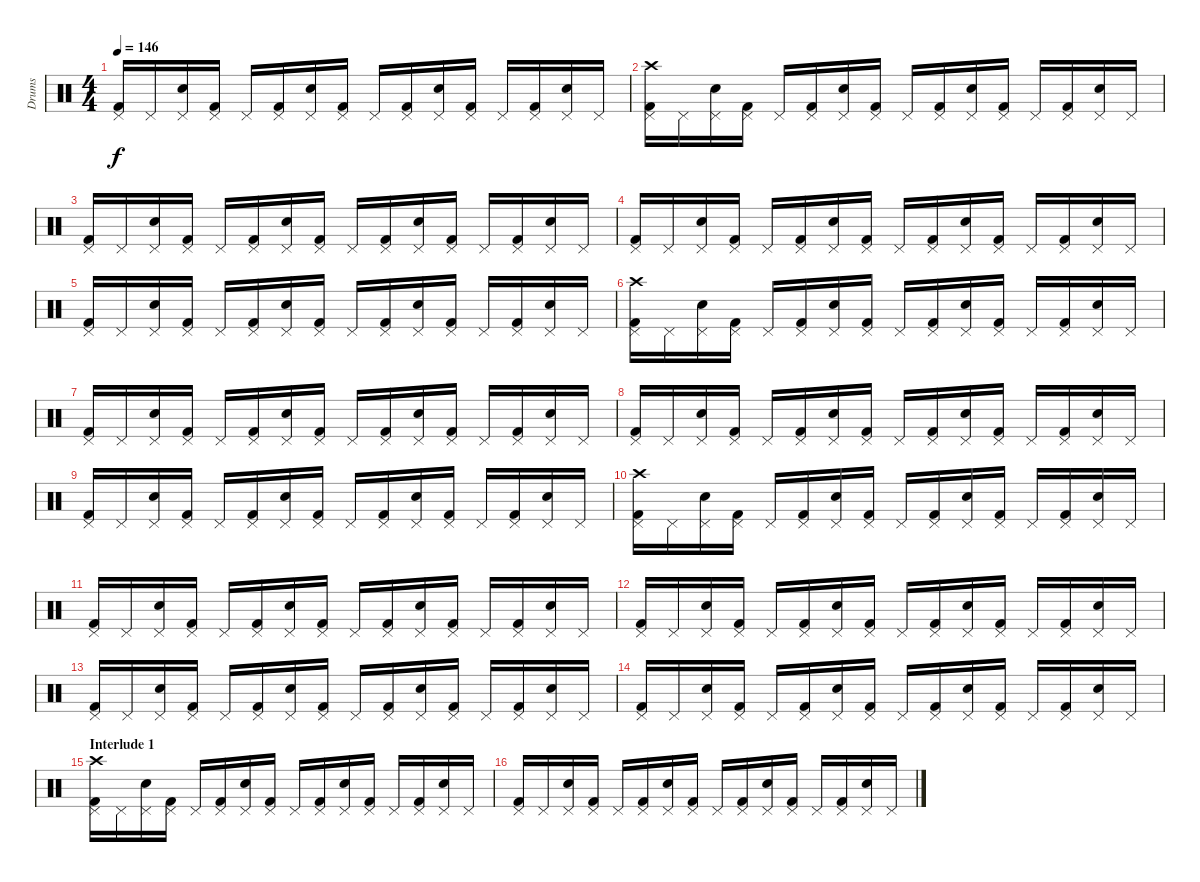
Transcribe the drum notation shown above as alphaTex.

\track ("Drums" "Drums") {instrument percussion}
\staff {score}
\articulation defaults
\ts (4 4)
\tempo 146
\clef neutral
\ks c
("Kick (hit) 2" "Pedal Hi-Hat (hit)").16{dy f} "Pedal Hi-Hat (hit)".16 ("Snare (hit) 2" "Pedal Hi-Hat (hit)").16 ("Kick (hit) 2" "Pedal Hi-Hat (hit)").16 "Pedal Hi-Hat (hit)".16 ("Kick (hit) 2" "Pedal Hi-Hat (hit)").16 ("Snare (hit) 2" "Pedal Hi-Hat (hit)").16 ("Kick (hit) 2" "Pedal Hi-Hat (hit)").16 "Pedal Hi-Hat (hit)".16 ("Kick (hit) 2" "Pedal Hi-Hat (hit)").16 ("Snare (hit) 2" "Pedal Hi-Hat (hit)").16 ("Kick (hit) 2" "Pedal Hi-Hat (hit)").16 "Pedal Hi-Hat (hit)".16 ("Kick (hit) 2" "Pedal Hi-Hat (hit)").16 ("Snare (hit) 2" "Pedal Hi-Hat (hit)").16 "Pedal Hi-Hat (hit)".16 |
("Kick (hit) 2" "Pedal Hi-Hat (hit)" "Crash high (hit)").16 "Pedal Hi-Hat (hit)".16 ("Snare (hit) 2" "Pedal Hi-Hat (hit)").16 ("Kick (hit) 2" "Pedal Hi-Hat (hit)").16 "Pedal Hi-Hat (hit)".16 ("Kick (hit) 2" "Pedal Hi-Hat (hit)").16 ("Snare (hit) 2" "Pedal Hi-Hat (hit)").16 ("Kick (hit) 2" "Pedal Hi-Hat (hit)").16 "Pedal Hi-Hat (hit)".16 ("Kick (hit) 2" "Pedal Hi-Hat (hit)").16 ("Snare (hit) 2" "Pedal Hi-Hat (hit)").16 ("Kick (hit) 2" "Pedal Hi-Hat (hit)").16 "Pedal Hi-Hat (hit)".16 ("Kick (hit) 2" "Pedal Hi-Hat (hit)").16 ("Snare (hit) 2" "Pedal Hi-Hat (hit)").16 "Pedal Hi-Hat (hit)".16 |
("Kick (hit) 2" "Pedal Hi-Hat (hit)").16 "Pedal Hi-Hat (hit)".16 ("Snare (hit) 2" "Pedal Hi-Hat (hit)").16 ("Kick (hit) 2" "Pedal Hi-Hat (hit)").16 "Pedal Hi-Hat (hit)".16 ("Kick (hit) 2" "Pedal Hi-Hat (hit)").16 ("Snare (hit) 2" "Pedal Hi-Hat (hit)").16 ("Kick (hit) 2" "Pedal Hi-Hat (hit)").16 "Pedal Hi-Hat (hit)".16 ("Kick (hit) 2" "Pedal Hi-Hat (hit)").16 ("Snare (hit) 2" "Pedal Hi-Hat (hit)").16 ("Kick (hit) 2" "Pedal Hi-Hat (hit)").16 "Pedal Hi-Hat (hit)".16 ("Kick (hit) 2" "Pedal Hi-Hat (hit)").16 ("Snare (hit) 2" "Pedal Hi-Hat (hit)").16 "Pedal Hi-Hat (hit)".16 |
("Kick (hit) 2" "Pedal Hi-Hat (hit)").16 "Pedal Hi-Hat (hit)".16 ("Snare (hit) 2" "Pedal Hi-Hat (hit)").16 ("Kick (hit) 2" "Pedal Hi-Hat (hit)").16 "Pedal Hi-Hat (hit)".16 ("Kick (hit) 2" "Pedal Hi-Hat (hit)").16 ("Snare (hit) 2" "Pedal Hi-Hat (hit)").16 ("Kick (hit) 2" "Pedal Hi-Hat (hit)").16 "Pedal Hi-Hat (hit)".16 ("Kick (hit) 2" "Pedal Hi-Hat (hit)").16 ("Snare (hit) 2" "Pedal Hi-Hat (hit)").16 ("Kick (hit) 2" "Pedal Hi-Hat (hit)").16 "Pedal Hi-Hat (hit)".16 ("Kick (hit) 2" "Pedal Hi-Hat (hit)").16 ("Snare (hit) 2" "Pedal Hi-Hat (hit)").16 "Pedal Hi-Hat (hit)".16 |
("Kick (hit) 2" "Pedal Hi-Hat (hit)").16 "Pedal Hi-Hat (hit)".16 ("Snare (hit) 2" "Pedal Hi-Hat (hit)").16 ("Kick (hit) 2" "Pedal Hi-Hat (hit)").16 "Pedal Hi-Hat (hit)".16 ("Kick (hit) 2" "Pedal Hi-Hat (hit)").16 ("Snare (hit) 2" "Pedal Hi-Hat (hit)").16 ("Kick (hit) 2" "Pedal Hi-Hat (hit)").16 "Pedal Hi-Hat (hit)".16 ("Kick (hit) 2" "Pedal Hi-Hat (hit)").16 ("Snare (hit) 2" "Pedal Hi-Hat (hit)").16 ("Kick (hit) 2" "Pedal Hi-Hat (hit)").16 "Pedal Hi-Hat (hit)".16 ("Kick (hit) 2" "Pedal Hi-Hat (hit)").16 ("Snare (hit) 2" "Pedal Hi-Hat (hit)").16 "Pedal Hi-Hat (hit)".16 |
("Kick (hit) 2" "Pedal Hi-Hat (hit)" "Crash high (hit)").16 "Pedal Hi-Hat (hit)".16 ("Snare (hit) 2" "Pedal Hi-Hat (hit)").16 ("Kick (hit) 2" "Pedal Hi-Hat (hit)").16 "Pedal Hi-Hat (hit)".16 ("Kick (hit) 2" "Pedal Hi-Hat (hit)").16 ("Snare (hit) 2" "Pedal Hi-Hat (hit)").16 ("Kick (hit) 2" "Pedal Hi-Hat (hit)").16 "Pedal Hi-Hat (hit)".16 ("Kick (hit) 2" "Pedal Hi-Hat (hit)").16 ("Snare (hit) 2" "Pedal Hi-Hat (hit)").16 ("Kick (hit) 2" "Pedal Hi-Hat (hit)").16 "Pedal Hi-Hat (hit)".16 ("Kick (hit) 2" "Pedal Hi-Hat (hit)").16 ("Snare (hit) 2" "Pedal Hi-Hat (hit)").16 "Pedal Hi-Hat (hit)".16 |
("Kick (hit) 2" "Pedal Hi-Hat (hit)").16 "Pedal Hi-Hat (hit)".16 ("Snare (hit) 2" "Pedal Hi-Hat (hit)").16 ("Kick (hit) 2" "Pedal Hi-Hat (hit)").16 "Pedal Hi-Hat (hit)".16 ("Kick (hit) 2" "Pedal Hi-Hat (hit)").16 ("Snare (hit) 2" "Pedal Hi-Hat (hit)").16 ("Kick (hit) 2" "Pedal Hi-Hat (hit)").16 "Pedal Hi-Hat (hit)".16 ("Kick (hit) 2" "Pedal Hi-Hat (hit)").16 ("Snare (hit) 2" "Pedal Hi-Hat (hit)").16 ("Kick (hit) 2" "Pedal Hi-Hat (hit)").16 "Pedal Hi-Hat (hit)".16 ("Kick (hit) 2" "Pedal Hi-Hat (hit)").16 ("Snare (hit) 2" "Pedal Hi-Hat (hit)").16 "Pedal Hi-Hat (hit)".16 |
("Kick (hit) 2" "Pedal Hi-Hat (hit)").16 "Pedal Hi-Hat (hit)".16 ("Snare (hit) 2" "Pedal Hi-Hat (hit)").16 ("Kick (hit) 2" "Pedal Hi-Hat (hit)").16 "Pedal Hi-Hat (hit)".16 ("Kick (hit) 2" "Pedal Hi-Hat (hit)").16 ("Snare (hit) 2" "Pedal Hi-Hat (hit)").16 ("Kick (hit) 2" "Pedal Hi-Hat (hit)").16 "Pedal Hi-Hat (hit)".16 ("Kick (hit) 2" "Pedal Hi-Hat (hit)").16 ("Snare (hit) 2" "Pedal Hi-Hat (hit)").16 ("Kick (hit) 2" "Pedal Hi-Hat (hit)").16 "Pedal Hi-Hat (hit)".16 ("Kick (hit) 2" "Pedal Hi-Hat (hit)").16 ("Snare (hit) 2" "Pedal Hi-Hat (hit)").16 "Pedal Hi-Hat (hit)".16 |
("Kick (hit) 2" "Pedal Hi-Hat (hit)").16 "Pedal Hi-Hat (hit)".16 ("Snare (hit) 2" "Pedal Hi-Hat (hit)").16 ("Kick (hit) 2" "Pedal Hi-Hat (hit)").16 "Pedal Hi-Hat (hit)".16 ("Kick (hit) 2" "Pedal Hi-Hat (hit)").16 ("Snare (hit) 2" "Pedal Hi-Hat (hit)").16 ("Kick (hit) 2" "Pedal Hi-Hat (hit)").16 "Pedal Hi-Hat (hit)".16 ("Kick (hit) 2" "Pedal Hi-Hat (hit)").16 ("Snare (hit) 2" "Pedal Hi-Hat (hit)").16 ("Kick (hit) 2" "Pedal Hi-Hat (hit)").16 "Pedal Hi-Hat (hit)".16 ("Kick (hit) 2" "Pedal Hi-Hat (hit)").16 ("Snare (hit) 2" "Pedal Hi-Hat (hit)").16 "Pedal Hi-Hat (hit)".16 |
("Kick (hit) 2" "Pedal Hi-Hat (hit)" "Crash high (hit)").16 "Pedal Hi-Hat (hit)".16 ("Snare (hit) 2" "Pedal Hi-Hat (hit)").16 ("Kick (hit) 2" "Pedal Hi-Hat (hit)").16 "Pedal Hi-Hat (hit)".16 ("Kick (hit) 2" "Pedal Hi-Hat (hit)").16 ("Snare (hit) 2" "Pedal Hi-Hat (hit)").16 ("Kick (hit) 2" "Pedal Hi-Hat (hit)").16 "Pedal Hi-Hat (hit)".16 ("Kick (hit) 2" "Pedal Hi-Hat (hit)").16 ("Snare (hit) 2" "Pedal Hi-Hat (hit)").16 ("Kick (hit) 2" "Pedal Hi-Hat (hit)").16 "Pedal Hi-Hat (hit)".16 ("Kick (hit) 2" "Pedal Hi-Hat (hit)").16 ("Snare (hit) 2" "Pedal Hi-Hat (hit)").16 "Pedal Hi-Hat (hit)".16 |
("Kick (hit) 2" "Pedal Hi-Hat (hit)").16 "Pedal Hi-Hat (hit)".16 ("Snare (hit) 2" "Pedal Hi-Hat (hit)").16 ("Kick (hit) 2" "Pedal Hi-Hat (hit)").16 "Pedal Hi-Hat (hit)".16 ("Kick (hit) 2" "Pedal Hi-Hat (hit)").16 ("Snare (hit) 2" "Pedal Hi-Hat (hit)").16 ("Kick (hit) 2" "Pedal Hi-Hat (hit)").16 "Pedal Hi-Hat (hit)".16 ("Kick (hit) 2" "Pedal Hi-Hat (hit)").16 ("Snare (hit) 2" "Pedal Hi-Hat (hit)").16 ("Kick (hit) 2" "Pedal Hi-Hat (hit)").16 "Pedal Hi-Hat (hit)".16 ("Kick (hit) 2" "Pedal Hi-Hat (hit)").16 ("Snare (hit) 2" "Pedal Hi-Hat (hit)").16 "Pedal Hi-Hat (hit)".16 |
("Kick (hit) 2" "Pedal Hi-Hat (hit)").16 "Pedal Hi-Hat (hit)".16 ("Snare (hit) 2" "Pedal Hi-Hat (hit)").16 ("Kick (hit) 2" "Pedal Hi-Hat (hit)").16 "Pedal Hi-Hat (hit)".16 ("Kick (hit) 2" "Pedal Hi-Hat (hit)").16 ("Snare (hit) 2" "Pedal Hi-Hat (hit)").16 ("Kick (hit) 2" "Pedal Hi-Hat (hit)").16 "Pedal Hi-Hat (hit)".16 ("Kick (hit) 2" "Pedal Hi-Hat (hit)").16 ("Snare (hit) 2" "Pedal Hi-Hat (hit)").16 ("Kick (hit) 2" "Pedal Hi-Hat (hit)").16 "Pedal Hi-Hat (hit)".16 ("Kick (hit) 2" "Pedal Hi-Hat (hit)").16 ("Snare (hit) 2" "Pedal Hi-Hat (hit)").16 "Pedal Hi-Hat (hit)".16 |
("Kick (hit) 2" "Pedal Hi-Hat (hit)").16 "Pedal Hi-Hat (hit)".16 ("Snare (hit) 2" "Pedal Hi-Hat (hit)").16 ("Kick (hit) 2" "Pedal Hi-Hat (hit)").16 "Pedal Hi-Hat (hit)".16 ("Kick (hit) 2" "Pedal Hi-Hat (hit)").16 ("Snare (hit) 2" "Pedal Hi-Hat (hit)").16 ("Kick (hit) 2" "Pedal Hi-Hat (hit)").16 "Pedal Hi-Hat (hit)".16 ("Kick (hit) 2" "Pedal Hi-Hat (hit)").16 ("Snare (hit) 2" "Pedal Hi-Hat (hit)").16 ("Kick (hit) 2" "Pedal Hi-Hat (hit)").16 "Pedal Hi-Hat (hit)".16 ("Kick (hit) 2" "Pedal Hi-Hat (hit)").16 ("Snare (hit) 2" "Pedal Hi-Hat (hit)").16 "Pedal Hi-Hat (hit)".16 |
("Kick (hit) 2" "Pedal Hi-Hat (hit)").16 "Pedal Hi-Hat (hit)".16 ("Snare (hit) 2" "Pedal Hi-Hat (hit)").16 ("Kick (hit) 2" "Pedal Hi-Hat (hit)").16 "Pedal Hi-Hat (hit)".16 ("Kick (hit) 2" "Pedal Hi-Hat (hit)").16 ("Snare (hit) 2" "Pedal Hi-Hat (hit)").16 ("Kick (hit) 2" "Pedal Hi-Hat (hit)").16 "Pedal Hi-Hat (hit)".16 ("Kick (hit) 2" "Pedal Hi-Hat (hit)").16 ("Snare (hit) 2" "Pedal Hi-Hat (hit)").16 ("Kick (hit) 2" "Pedal Hi-Hat (hit)").16 "Pedal Hi-Hat (hit)".16 ("Kick (hit) 2" "Pedal Hi-Hat (hit)").16 ("Snare (hit) 2" "Pedal Hi-Hat (hit)").16 "Pedal Hi-Hat (hit)".16 |
\section ("" "Interlude 1")
("Kick (hit) 2" "Pedal Hi-Hat (hit)" "Crash high (hit)").16 "Pedal Hi-Hat (hit)".16 ("Snare (hit) 2" "Pedal Hi-Hat (hit)").16 ("Kick (hit) 2" "Pedal Hi-Hat (hit)").16 "Pedal Hi-Hat (hit)".16 ("Kick (hit) 2" "Pedal Hi-Hat (hit)").16 ("Snare (hit) 2" "Pedal Hi-Hat (hit)").16 ("Kick (hit) 2" "Pedal Hi-Hat (hit)").16 "Pedal Hi-Hat (hit)".16 ("Kick (hit) 2" "Pedal Hi-Hat (hit)").16 ("Snare (hit) 2" "Pedal Hi-Hat (hit)").16 ("Kick (hit) 2" "Pedal Hi-Hat (hit)").16 "Pedal Hi-Hat (hit)".16 ("Kick (hit) 2" "Pedal Hi-Hat (hit)").16 ("Snare (hit) 2" "Pedal Hi-Hat (hit)").16 "Pedal Hi-Hat (hit)".16 |
("Kick (hit) 2" "Pedal Hi-Hat (hit)").16 "Pedal Hi-Hat (hit)".16 ("Snare (hit) 2" "Pedal Hi-Hat (hit)").16 ("Kick (hit) 2" "Pedal Hi-Hat (hit)").16 "Pedal Hi-Hat (hit)".16 ("Kick (hit) 2" "Pedal Hi-Hat (hit)").16 ("Snare (hit) 2" "Pedal Hi-Hat (hit)").16 ("Kick (hit) 2" "Pedal Hi-Hat (hit)").16 "Pedal Hi-Hat (hit)".16 ("Kick (hit) 2" "Pedal Hi-Hat (hit)").16 ("Snare (hit) 2" "Pedal Hi-Hat (hit)").16 ("Kick (hit) 2" "Pedal Hi-Hat (hit)").16 "Pedal Hi-Hat (hit)".16 ("Kick (hit) 2" "Pedal Hi-Hat (hit)").16 ("Snare (hit) 2" "Pedal Hi-Hat (hit)").16 "Pedal Hi-Hat (hit)".16
